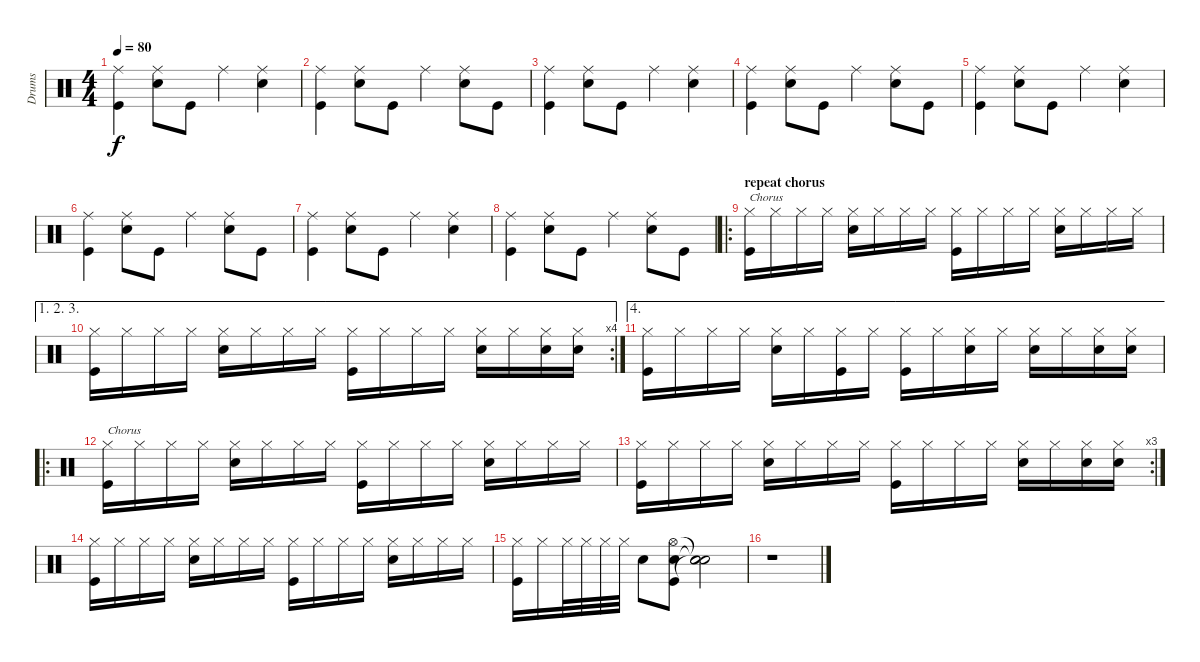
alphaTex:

\track ("Drums" "Drums") {instrument percussion}
\staff {score}
\articulation defaults
\ts (4 4)
\tempo 80
\clef neutral
\ks c
("Ride (middle)" "Kick (hit)").4{dy f} ("Ride (middle)" "Snare (hit) 2").8 "Kick (hit)".8 "Ride (middle)".4 ("Ride (middle)" "Snare (hit) 2").4 |
("Ride (middle)" "Kick (hit)").4 ("Ride (middle)" "Snare (hit) 2").8 "Kick (hit)".8 "Ride (middle)".4 ("Ride (middle)" "Snare (hit) 2").8 "Kick (hit)".8 |
("Ride (middle)" "Kick (hit)").4 ("Ride (middle)" "Snare (hit) 2").8 "Kick (hit)".8 "Ride (middle)".4 ("Ride (middle)" "Snare (hit) 2").4 |
("Ride (middle)" "Kick (hit)").4 ("Ride (middle)" "Snare (hit) 2").8 "Kick (hit)".8 "Ride (middle)".4 ("Ride (middle)" "Snare (hit) 2").8 "Kick (hit)".8 |
("Ride (middle)" "Kick (hit)").4 ("Ride (middle)" "Snare (hit) 2").8 "Kick (hit)".8 "Ride (middle)".4 ("Ride (middle)" "Snare (hit) 2").4 |
("Ride (middle)" "Kick (hit)").4 ("Ride (middle)" "Snare (hit) 2").8 "Kick (hit)".8 "Ride (middle)".4 ("Ride (middle)" "Snare (hit) 2").8 "Kick (hit)".8 |
("Ride (middle)" "Kick (hit)").4 ("Ride (middle)" "Snare (hit) 2").8 "Kick (hit)".8 "Ride (middle)".4 ("Ride (middle)" "Snare (hit) 2").4 |
("Ride (middle)" "Kick (hit)").4 ("Ride (middle)" "Snare (hit) 2").8 "Kick (hit)".8 "Ride (middle)".4 ("Ride (middle)" "Snare (hit) 2").8 "Kick (hit)".8 |
\ro
\section ("" "repeat chorus")
("Hi-Hat (closed)" "Kick (hit)").16{txt "Chorus"} "Hi-Hat (closed)".16 "Hi-Hat (closed)".16 "Hi-Hat (closed)".16 ("Hi-Hat (closed)" "Snare (hit) 2").16 "Hi-Hat (closed)".16 "Hi-Hat (closed)".16 "Hi-Hat (closed)".16 ("Hi-Hat (closed)" "Kick (hit)").16 "Hi-Hat (closed)".16 "Hi-Hat (closed)".16 "Hi-Hat (closed)".16 ("Hi-Hat (closed)" "Snare (hit) 2").16 "Hi-Hat (closed)".16 "Hi-Hat (closed)".16 "Hi-Hat (closed)".16 |
\ae (1 2 3)
\rc 4
("Hi-Hat (closed)" "Kick (hit)").16 "Hi-Hat (closed)".16 "Hi-Hat (closed)".16 "Hi-Hat (closed)".16 ("Hi-Hat (closed)" "Snare (hit) 2").16 "Hi-Hat (closed)".16 "Hi-Hat (closed)".16 "Hi-Hat (closed)".16 ("Hi-Hat (closed)" "Kick (hit)").16 "Hi-Hat (closed)".16 "Hi-Hat (closed)".16 "Hi-Hat (closed)".16 ("Hi-Hat (closed)" "Snare (hit) 2").16 "Hi-Hat (closed)".16 ("Hi-Hat (closed)" "Snare (hit) 2").16 ("Hi-Hat (closed)" "Snare (hit) 2").16 |
\ae 4
("Hi-Hat (closed)" "Kick (hit)").16 "Hi-Hat (closed)".16 "Hi-Hat (closed)".16 "Hi-Hat (closed)".16 ("Hi-Hat (closed)" "Snare (hit) 2").16 "Hi-Hat (closed)".16 ("Hi-Hat (closed)" "Kick (hit)").16 "Hi-Hat (closed)".16 ("Hi-Hat (closed)" "Kick (hit)").16 "Hi-Hat (closed)".16 ("Hi-Hat (closed)" "Snare (hit) 2").16 "Hi-Hat (closed)".16 ("Hi-Hat (closed)" "Snare (hit) 2").16 "Hi-Hat (closed)".16 ("Hi-Hat (closed)" "Snare (hit) 2").16 ("Hi-Hat (closed)" "Snare (hit) 2").16 |
\ro
("Hi-Hat (closed)" "Kick (hit)").16{txt "Chorus"} "Hi-Hat (closed)".16 "Hi-Hat (closed)".16 "Hi-Hat (closed)".16 ("Hi-Hat (closed)" "Snare (hit) 2").16 "Hi-Hat (closed)".16 "Hi-Hat (closed)".16 "Hi-Hat (closed)".16 ("Hi-Hat (closed)" "Kick (hit)").16 "Hi-Hat (closed)".16 "Hi-Hat (closed)".16 "Hi-Hat (closed)".16 ("Hi-Hat (closed)" "Snare (hit) 2").16 "Hi-Hat (closed)".16 "Hi-Hat (closed)".16 "Hi-Hat (closed)".16 |
\rc 3
("Hi-Hat (closed)" "Kick (hit)").16 "Hi-Hat (closed)".16 "Hi-Hat (closed)".16 "Hi-Hat (closed)".16 ("Hi-Hat (closed)" "Snare (hit) 2").16 "Hi-Hat (closed)".16 "Hi-Hat (closed)".16 "Hi-Hat (closed)".16 ("Hi-Hat (closed)" "Kick (hit)").16 "Hi-Hat (closed)".16 "Hi-Hat (closed)".16 "Hi-Hat (closed)".16 ("Hi-Hat (closed)" "Snare (hit) 2").16 "Hi-Hat (closed)".16 ("Hi-Hat (closed)" "Snare (hit) 2").16 ("Hi-Hat (closed)" "Snare (hit) 2").16 |
("Hi-Hat (closed)" "Kick (hit)").16 "Hi-Hat (closed)".16 "Hi-Hat (closed)".16 "Hi-Hat (closed)".16 ("Hi-Hat (closed)" "Snare (hit) 2").16 "Hi-Hat (closed)".16 "Hi-Hat (closed)".16 "Hi-Hat (closed)".16 ("Hi-Hat (closed)" "Kick (hit)").16 "Hi-Hat (closed)".16 "Hi-Hat (closed)".16 "Hi-Hat (closed)".16 ("Hi-Hat (closed)" "Snare (hit) 2").16 "Hi-Hat (closed)".16 "Hi-Hat (closed)".16 "Hi-Hat (closed)".16 |
("Hi-Hat (closed)" "Kick (hit)").16 "Hi-Hat (closed)".16 "Hi-Hat (closed)".32 "Hi-Hat (closed)".32 "Hi-Hat (closed)".32 "Hi-Hat (closed)".32 "Snare (hit) 2".8 ("Hi-Hat (open)" "Snare (hit) 2" "Kick (hit)").8 ("Snare (hit)"{t} "Snare (hit)"{t} "Snare (hit)"{t}).2 |
r.1
